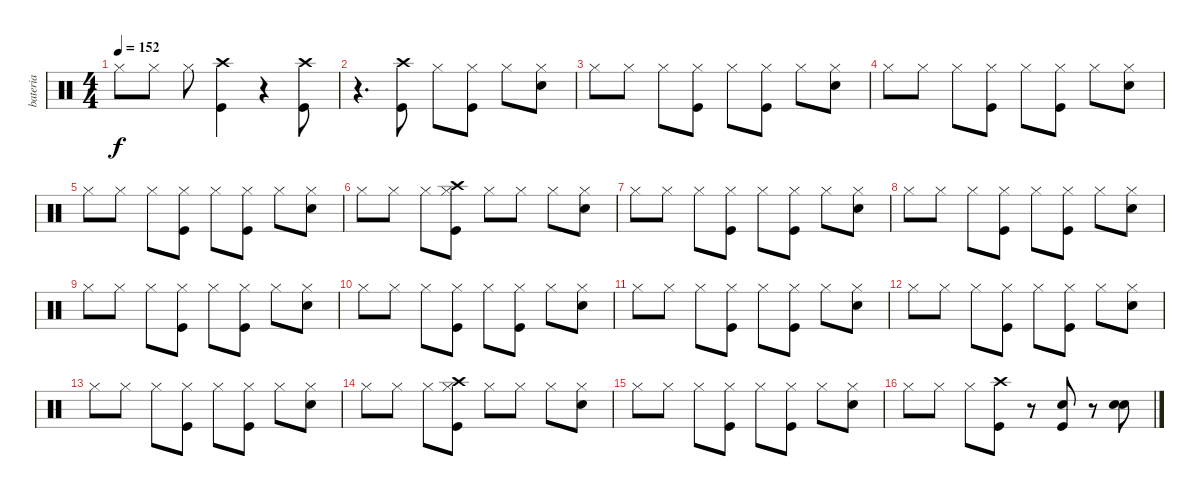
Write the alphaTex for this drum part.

\track ("bateria" "bateria") {instrument percussion}
\staff {score}
\articulation defaults
\ts (4 4)
\tempo 152
\clef neutral
\ks c "Hi-Hat (closed)".8{dy f} "Hi-Hat (closed)".8 "Hi-Hat (closed)".8
("Crash high (hit)" "Kick (hit)").4 r.4 ("Crash high (hit)" "Kick (hit)").8 |
r.4{d} ("Crash high (hit)" "Kick (hit)").8 "Hi-Hat (closed)".8 ("Hi-Hat (closed)" "Kick (hit)").8 "Hi-Hat (closed)".8 ("Hi-Hat (closed)" "Electric Snare (hit)").8 |
"Hi-Hat (closed)".8 "Hi-Hat (closed)".8 "Hi-Hat (closed)".8 ("Hi-Hat (closed)" "Kick (hit)").8 "Hi-Hat (closed)".8 ("Hi-Hat (closed)" "Kick (hit)").8 "Hi-Hat (closed)".8 ("Hi-Hat (closed)" "Electric Snare (hit)").8 |
"Hi-Hat (closed)".8 "Hi-Hat (closed)".8 "Hi-Hat (closed)".8 ("Hi-Hat (closed)" "Kick (hit)").8 "Hi-Hat (closed)".8 ("Hi-Hat (closed)" "Kick (hit)").8 "Hi-Hat (closed)".8 ("Hi-Hat (closed)" "Electric Snare (hit)").8 |
"Hi-Hat (closed)".8 "Hi-Hat (closed)".8 "Hi-Hat (closed)".8 ("Hi-Hat (closed)" "Kick (hit)").8 "Hi-Hat (closed)".8 ("Hi-Hat (closed)" "Kick (hit)").8 "Hi-Hat (closed)".8 ("Hi-Hat (closed)" "Electric Snare (hit)").8 |
"Hi-Hat (closed)".8 "Hi-Hat (closed)".8 "Hi-Hat (closed)".8 ("Hi-Hat (closed)" "Kick (hit)" "Crash high (hit)").8 "Hi-Hat (closed)".8 "Hi-Hat (closed)".8 "Hi-Hat (closed)".8 ("Hi-Hat (closed)" "Electric Snare (hit)").8 |
"Hi-Hat (closed)".8 "Hi-Hat (closed)".8 "Hi-Hat (closed)".8 ("Hi-Hat (closed)" "Kick (hit)").8 "Hi-Hat (closed)".8 ("Hi-Hat (closed)" "Kick (hit)").8 "Hi-Hat (closed)".8 ("Hi-Hat (closed)" "Electric Snare (hit)").8 |
"Hi-Hat (closed)".8 "Hi-Hat (closed)".8 "Hi-Hat (closed)".8 ("Hi-Hat (closed)" "Kick (hit)").8 "Hi-Hat (closed)".8 ("Hi-Hat (closed)" "Kick (hit)").8 "Hi-Hat (closed)".8 ("Hi-Hat (closed)" "Electric Snare (hit)").8 |
"Hi-Hat (closed)".8 "Hi-Hat (closed)".8 "Hi-Hat (closed)".8 ("Hi-Hat (closed)" "Kick (hit)").8 "Hi-Hat (closed)".8 ("Hi-Hat (closed)" "Kick (hit)").8 "Hi-Hat (closed)".8 ("Hi-Hat (closed)" "Electric Snare (hit)").8 |
"Hi-Hat (closed)".8 "Hi-Hat (closed)".8 "Hi-Hat (closed)".8 ("Hi-Hat (closed)" "Kick (hit)").8 "Hi-Hat (closed)".8 ("Hi-Hat (closed)" "Kick (hit)").8 "Hi-Hat (closed)".8 ("Hi-Hat (closed)" "Electric Snare (hit)").8 |
"Hi-Hat (closed)".8 "Hi-Hat (closed)".8 "Hi-Hat (closed)".8 ("Hi-Hat (closed)" "Kick (hit)").8 "Hi-Hat (closed)".8 ("Hi-Hat (closed)" "Kick (hit)").8 "Hi-Hat (closed)".8 ("Hi-Hat (closed)" "Electric Snare (hit)").8 |
"Hi-Hat (closed)".8 "Hi-Hat (closed)".8 "Hi-Hat (closed)".8 ("Hi-Hat (closed)" "Kick (hit)").8 "Hi-Hat (closed)".8 ("Hi-Hat (closed)" "Kick (hit)").8 "Hi-Hat (closed)".8 ("Hi-Hat (closed)" "Electric Snare (hit)").8 |
"Hi-Hat (closed)".8 "Hi-Hat (closed)".8 "Hi-Hat (closed)".8 ("Hi-Hat (closed)" "Kick (hit)").8 "Hi-Hat (closed)".8 ("Hi-Hat (closed)" "Kick (hit)").8 "Hi-Hat (closed)".8 ("Hi-Hat (closed)" "Electric Snare (hit)").8 |
"Hi-Hat (closed)".8 "Hi-Hat (closed)".8 "Hi-Hat (closed)".8 ("Hi-Hat (closed)" "Kick (hit)" "Crash high (hit)").8 "Hi-Hat (closed)".8 "Hi-Hat (closed)".8 "Hi-Hat (closed)".8 ("Hi-Hat (closed)" "Electric Snare (hit)").8 |
"Hi-Hat (closed)".8 "Hi-Hat (closed)".8 "Hi-Hat (closed)".8 ("Hi-Hat (closed)" "Kick (hit)").8 "Hi-Hat (closed)".8 ("Hi-Hat (closed)" "Kick (hit)").8 "Hi-Hat (closed)".8 ("Hi-Hat (closed)" "Electric Snare (hit)").8 |
"Hi-Hat (closed)".8 "Hi-Hat (closed)".8 "Hi-Hat (closed)".8 ("Crash high (hit)" "Kick (hit)").8 r.8 ("Electric Snare (hit)" "Kick (hit)").8 r.8 ("Electric Snare (hit)" "Electric Snare (hit)").8
